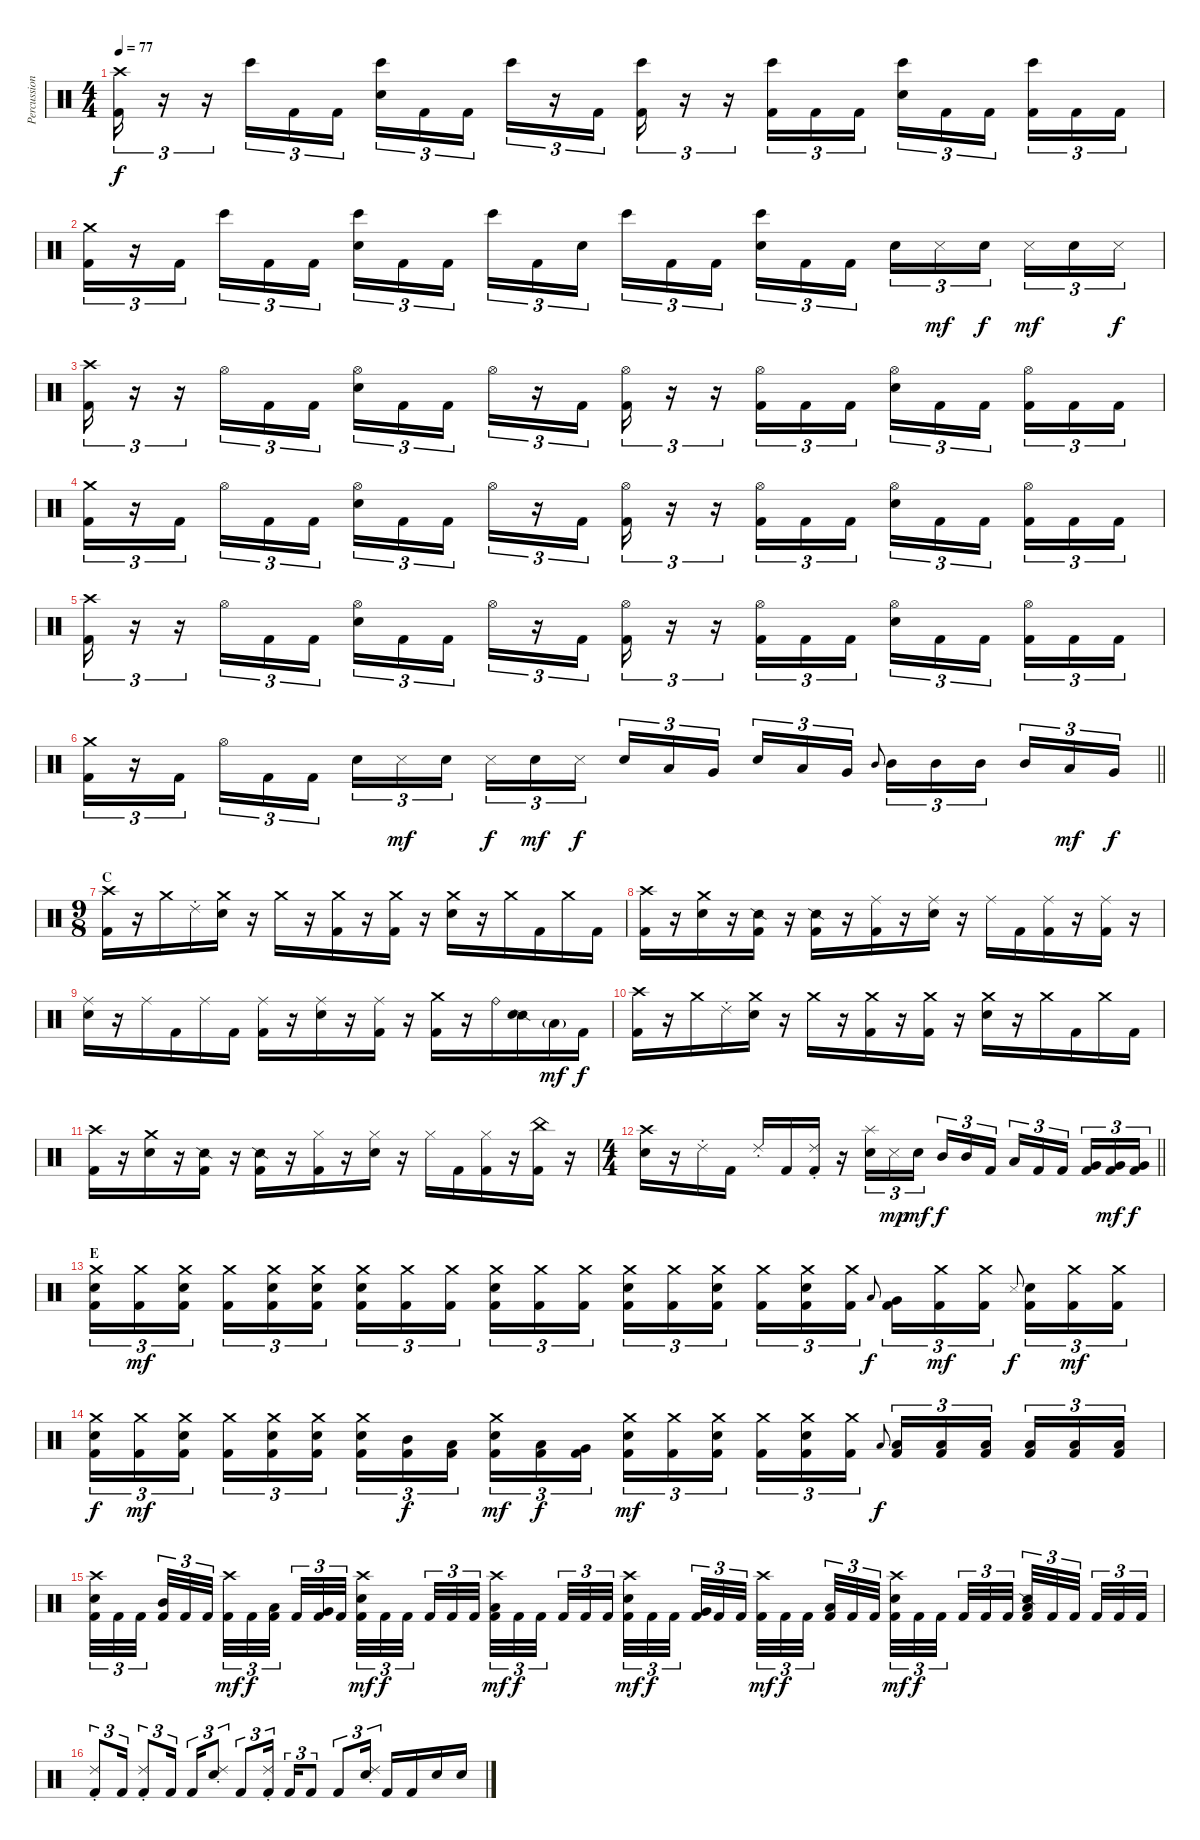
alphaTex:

\track ("Percussion" "Percussion") {instrument percussion}
\staff {score}
\articulation defaults
\ts (4 4)
\tempo 77
\clef neutral
\ks c
("Crash high (hit)" "Kick (hit) 2").16{tu (3 2) dy f} r.16{tu (3 2)} r.16{tu (3 2)} "Bongo High (hit)".16{tu (3 2)} "Kick (hit) 2".16{tu (3 2)} "Kick (hit) 2".16{tu (3 2)} ("Bongo High (hit)" "Snare (hit) 2").16{tu (3 2)} "Kick (hit) 2".16{tu (3 2)} "Kick (hit) 2".16{tu (3 2) beam splitsecondary} "Bongo High (hit)".16{tu (3 2)} r.16{tu (3 2)} "Kick (hit) 2".16{tu (3 2)} ("Bongo High (hit)" "Kick (hit) 2").16{tu (3 2)} r.16{tu (3 2)} r.16{tu (3 2)} ("Bongo High (hit)" "Kick (hit) 2").16{tu (3 2)} "Kick (hit) 2".16{tu (3 2)} "Kick (hit) 2".16{tu (3 2)} ("Bongo High (hit)" "Snare (hit) 2").16{tu (3 2)} "Kick (hit) 2".16{tu (3 2)} "Kick (hit) 2".16{tu (3 2) beam splitsecondary} ("Bongo High (hit)" "Kick (hit) 2").16{tu (3 2)} "Kick (hit) 2".16{tu (3 2)} "Kick (hit) 2".16{tu (3 2)} |
("Crash medium (hit)" "Kick (hit) 2").16{tu (3 2)} r.16{tu (3 2)} "Kick (hit) 2".16{tu (3 2) beam splitsecondary} "Bongo High (hit)".16{tu (3 2)} "Kick (hit) 2".16{tu (3 2)} "Kick (hit) 2".16{tu (3 2)} ("Bongo High (hit)" "Snare (hit) 2").16{tu (3 2)} "Kick (hit) 2".16{tu (3 2)} "Kick (hit) 2".16{tu (3 2) beam splitsecondary} "Bongo High (hit)".16{tu (3 2)} "Kick (hit) 2".16{tu (3 2)} "Snare (hit) 2".16{tu (3 2)} "Bongo High (hit)".16{tu (3 2)} "Kick (hit) 2".16{tu (3 2)} "Kick (hit) 2".16{tu (3 2) beam splitsecondary} ("Bongo High (hit)" "Snare (hit) 2").16{tu (3 2)} "Kick (hit) 2".16{tu (3 2)} "Kick (hit) 2".16{tu (3 2)} "Snare (hit) 2".16{tu (3 2)} "Metronome (hit)".16{tu (3 2) dy mf} "Snare (hit) 2".16{tu (3 2) dy f beam splitsecondary} "Metronome (hit)".16{tu (3 2) dy mf} "Snare (hit) 2".16{tu (3 2)} "Metronome (hit)".16{tu (3 2) dy f} |
("Crash high (hit)" "Kick (hit) 2").16{tu (3 2)} r.16{tu (3 2)} r.16{tu (3 2)} "Hi-Hat (open)".16{tu (3 2)} "Kick (hit) 2".16{tu (3 2)} "Kick (hit) 2".16{tu (3 2)} ("Hi-Hat (open)" "Snare (hit) 2").16{tu (3 2)} "Kick (hit) 2".16{tu (3 2)} "Kick (hit) 2".16{tu (3 2) beam splitsecondary} "Hi-Hat (open)".16{tu (3 2)} r.16{tu (3 2)} "Kick (hit) 2".16{tu (3 2)} ("Hi-Hat (open)" "Kick (hit) 2").16{tu (3 2)} r.16{tu (3 2)} r.16{tu (3 2)} ("Hi-Hat (open)" "Kick (hit) 2").16{tu (3 2)} "Kick (hit) 2".16{tu (3 2)} "Kick (hit) 2".16{tu (3 2)} ("Hi-Hat (open)" "Snare (hit) 2").16{tu (3 2)} "Kick (hit) 2".16{tu (3 2)} "Kick (hit) 2".16{tu (3 2) beam splitsecondary} ("Hi-Hat (open)" "Kick (hit) 2").16{tu (3 2)} "Kick (hit) 2".16{tu (3 2)} "Kick (hit) 2".16{tu (3 2)} |
("Crash medium (hit)" "Kick (hit) 2").16{tu (3 2)} r.16{tu (3 2)} "Kick (hit) 2".16{tu (3 2) beam splitsecondary} "Hi-Hat (open)".16{tu (3 2)} "Kick (hit) 2".16{tu (3 2)} "Kick (hit) 2".16{tu (3 2)} ("Hi-Hat (open)" "Snare (hit) 2").16{tu (3 2)} "Kick (hit) 2".16{tu (3 2)} "Kick (hit) 2".16{tu (3 2) beam splitsecondary} "Hi-Hat (open)".16{tu (3 2)} r.16{tu (3 2)} "Kick (hit) 2".16{tu (3 2)} ("Hi-Hat (open)" "Kick (hit) 2").16{tu (3 2)} r.16{tu (3 2)} r.16{tu (3 2)} ("Hi-Hat (open)" "Kick (hit) 2").16{tu (3 2)} "Kick (hit) 2".16{tu (3 2)} "Kick (hit) 2".16{tu (3 2)} ("Hi-Hat (open)" "Snare (hit) 2").16{tu (3 2)} "Kick (hit) 2".16{tu (3 2)} "Kick (hit) 2".16{tu (3 2) beam splitsecondary} ("Hi-Hat (open)" "Kick (hit) 2").16{tu (3 2)} "Kick (hit) 2".16{tu (3 2)} "Kick (hit) 2".16{tu (3 2)} |
("Crash high (hit)" "Kick (hit) 2").16{tu (3 2)} r.16{tu (3 2)} r.16{tu (3 2)} "Hi-Hat (open)".16{tu (3 2)} "Kick (hit) 2".16{tu (3 2)} "Kick (hit) 2".16{tu (3 2)} ("Hi-Hat (open)" "Snare (hit) 2").16{tu (3 2)} "Kick (hit) 2".16{tu (3 2)} "Kick (hit) 2".16{tu (3 2) beam splitsecondary} "Hi-Hat (open)".16{tu (3 2)} r.16{tu (3 2)} "Kick (hit) 2".16{tu (3 2)} ("Hi-Hat (open)" "Kick (hit) 2").16{tu (3 2)} r.16{tu (3 2)} r.16{tu (3 2)} ("Hi-Hat (open)" "Kick (hit) 2").16{tu (3 2)} "Kick (hit) 2".16{tu (3 2)} "Kick (hit) 2".16{tu (3 2)} ("Hi-Hat (open)" "Snare (hit) 2").16{tu (3 2)} "Kick (hit) 2".16{tu (3 2)} "Kick (hit) 2".16{tu (3 2) beam splitsecondary} ("Hi-Hat (open)" "Kick (hit) 2").16{tu (3 2)} "Kick (hit) 2".16{tu (3 2)} "Kick (hit) 2".16{tu (3 2)} |
\barLineRight lightlight
("Crash medium (hit)" "Kick (hit) 2").16{tu (3 2)} r.16{tu (3 2)} "Kick (hit) 2".16{tu (3 2) beam splitsecondary} "Hi-Hat (open)".16{tu (3 2)} "Kick (hit) 2".16{tu (3 2)} "Kick (hit) 2".16{tu (3 2)} "Snare (hit) 2".16{tu (3 2)} "Metronome (hit)".16{tu (3 2) dy mf} "Snare (hit) 2".16{tu (3 2) beam splitsecondary} "Metronome (hit)".16{tu (3 2) dy f} "Snare (hit) 2".16{tu (3 2) dy mf} "Metronome (hit)".16{tu (3 2) dy f} "Snare (hit) 2".16{tu (3 2)} "Low Tom (hit)".16{tu (3 2)} "Very Low Tom (hit)".16{tu (3 2) beam splitsecondary} "Snare (hit) 2".16{tu (3 2)} "Low Tom (hit)".16{tu (3 2)} "Very Low Tom (hit)".16{tu (3 2)} "Mid Tom (hit)".8{gr onbeat} "Mid Tom (hit)".16{tu (3 2)} "Mid Tom (hit)".16{tu (3 2)} "Mid Tom (hit)".16{tu (3 2) beam splitsecondary} "Mid Tom (hit)".16{tu (3 2)} "Low Tom (hit)".16{tu (3 2) dy mf} "Very Low Tom (hit)".16{tu (3 2) dy f} |
\ts (9 8)
\section ("" "C")
("Crash high (hit)" "Kick (hit) 2").16 r.16 "Crash medium (hit)".16 "Ride (choke) 2".16 ("Crash medium (hit)" "Snare (hit) 2").16 r.16 "Crash medium (hit)".16 r.16 ("Crash medium (hit)" "Kick (hit) 2").16 r.16 ("Crash medium (hit)" "Kick (hit) 2").16 r.16 ("Crash medium (hit)" "Snare (hit) 2").16 r.16 "Crash medium (hit)".16 "Kick (hit) 2".16 "Crash medium (hit)".16 "Kick (hit) 2".16 |
("Crash high (hit)" "Kick (hit) 2").16 r.16 ("Crash medium (hit)" "Snare (hit) 2").16 r.16 ("Snare (side stick) 2" "Kick (hit) 2").16 r.16 ("Snare (side stick) 2" "Kick (hit) 2").16 r.16 ("Ride (middle)" "Kick (hit) 2").16 r.16 ("Ride (middle)" "Snare (hit) 2").16 r.16 "Ride (middle)".16 "Kick (hit) 2".16 ("Ride (middle)" "Kick (hit) 2").16 r.16 ("Ride (middle)" "Kick (hit) 2").16 r.16 |
("Ride (middle)" "Snare (hit) 2").16 r.16 "Ride (middle)".16 "Kick (hit) 2".16 "Ride (middle)".16 "Kick (hit) 2".16 ("Ride (middle)" "Kick (hit) 2").16 r.16 ("Ride (middle)" "Snare (hit) 2").16 r.16 ("Ride (middle)" "Kick (hit) 2").16 r.16 ("Crash medium (hit)" "Kick (hit) 2").16 r.16 "Ride (bell)".16 ("Snare (side stick) 2" "Snare (hit) 2").16 "Low Tom (hit)"{g}.16{dy mf} "Kick (hit) 2".16{dy f} |
("Crash high (hit)" "Kick (hit) 2").16 r.16 "Crash medium (hit)".16 "Ride (choke) 2".16 ("Crash medium (hit)" "Snare (hit) 2").16 r.16 "Crash medium (hit)".16 r.16 ("Crash medium (hit)" "Kick (hit) 2").16 r.16 ("Crash medium (hit)" "Kick (hit) 2").16 r.16 ("Crash medium (hit)" "Snare (hit) 2").16 r.16 "Crash medium (hit)".16 "Kick (hit) 2".16 "Crash medium (hit)".16 "Kick (hit) 2".16 |
("Crash high (hit)" "Kick (hit) 2").16 r.16 ("Crash medium (hit)" "Snare (hit) 2").16 r.16 ("Snare (side stick) 2" "Kick (hit) 2").16 r.16 ("Snare (side stick) 2" "Kick (hit) 2").16 r.16 ("Hi-Hat (closed)" "Kick (hit) 2").16 r.16 ("Hi-Hat (closed)" "Snare (hit) 2").16 r.16 "Hi-Hat (closed)".16 "Kick (hit) 2".16 ("Hi-Hat (closed)" "Kick (hit) 2").16 r.16 ("China (hit)" "Kick (hit) 2").16 r.16 |
\ts (4 4)
\barLineRight lightlight
("Crash high (hit)" "Snare (hit) 2").16 r.16 "Ride (choke) 2".16 "Kick (hit) 2".16 "Ride (choke) 2".16 "Kick (hit) 2".16 ("Ride (choke) 2" "Kick (hit) 2").16 r.16 ("Splash (hit)" "Snare (hit) 2").16{tu (3 2)} "Metronome (hit)".16{tu (3 2) dy mp} "Snare (hit) 2".16{tu (3 2) dy mf beam splitsecondary} "Mid Tom (hit)".16{tu (3 2) dy f} "Mid Tom (hit)".16{tu (3 2)} "Kick (hit) 2".16{tu (3 2)} "Low Tom (hit)".16{tu (3 2)} "Kick (hit) 2".16{tu (3 2)} "Kick (hit) 2".16{tu (3 2) beam splitsecondary} ("Very Low Tom (hit)" "Kick (hit) 2").16{tu (3 2)} ("Very Low Tom (hit)" "Kick (hit) 2").16{tu (3 2) dy mf} ("Very Low Tom (hit)" "Kick (hit) 2").16{tu (3 2) dy f} |
\section ("" "E")
("Crash medium (hit)" "Snare (hit) 2" "Kick (hit) 2").16{tu (3 2)} ("Crash medium (hit)" "Kick (hit) 2").16{tu (3 2) dy mf} ("Crash medium (hit)" "Snare (hit) 2" "Kick (hit) 2").16{tu (3 2) beam splitsecondary} ("Crash medium (hit)" "Kick (hit) 2").16{tu (3 2)} ("Crash medium (hit)" "Snare (hit) 2" "Kick (hit) 2").16{tu (3 2)} ("Crash medium (hit)" "Snare (hit) 2" "Kick (hit) 2").16{tu (3 2)} ("Crash medium (hit)" "Snare (hit) 2" "Kick (hit) 2").16{tu (3 2)} ("Crash medium (hit)" "Kick (hit) 2").16{tu (3 2)} ("Crash medium (hit)" "Kick (hit) 2").16{tu (3 2) beam splitsecondary} ("Crash medium (hit)" "Snare (hit) 2" "Kick (hit) 2").16{tu (3 2)} ("Crash medium (hit)" "Kick (hit) 2").16{tu (3 2)} ("Crash medium (hit)" "Kick (hit) 2").16{tu (3 2)} ("Crash medium (hit)" "Snare (hit) 2" "Kick (hit) 2").16{tu (3 2)} ("Crash medium (hit)" "Kick (hit) 2").16{tu (3 2)} ("Crash medium (hit)" "Snare (hit) 2" "Kick (hit) 2").16{tu (3 2) beam splitsecondary} ("Crash medium (hit)" "Kick (hit) 2").16{tu (3 2)} ("Crash medium (hit)" "Snare (hit) 2" "Kick (hit) 2").16{tu (3 2)} ("Crash medium (hit)" "Kick (hit) 2").16{tu (3 2)} "Low Tom (hit)".8{gr onbeat dy f} ("Very Low Tom (hit)" "Kick (hit) 2").16{tu (3 2)} ("Crash medium (hit)" "Kick (hit) 2").16{tu (3 2) dy mf} ("Crash medium (hit)" "Kick (hit) 2").16{tu (3 2)} "Metronome (hit)".8{gr onbeat dy f beam splitsecondary} ("Snare (hit) 2" "Kick (hit) 2").16{tu (3 2)} ("Crash medium (hit)" "Kick (hit) 2").16{tu (3 2) dy mf} ("Crash medium (hit)" "Kick (hit) 2").16{tu (3 2)} |
("Crash medium (hit)" "Snare (hit) 2" "Kick (hit) 2").16{tu (3 2) dy f} ("Crash medium (hit)" "Kick (hit) 2").16{tu (3 2) dy mf} ("Crash medium (hit)" "Snare (hit) 2" "Kick (hit) 2").16{tu (3 2) beam splitsecondary} ("Crash medium (hit)" "Kick (hit) 2").16{tu (3 2)} ("Crash medium (hit)" "Snare (hit) 2" "Kick (hit) 2").16{tu (3 2)} ("Crash medium (hit)" "Snare (hit) 2" "Kick (hit) 2").16{tu (3 2)} ("Crash medium (hit)" "Snare (hit) 2" "Kick (hit) 2").16{tu (3 2)} ("Mid Tom (hit)" "Kick (hit) 2").16{tu (3 2) dy f} ("Low Tom (hit)" "Kick (hit) 2").16{tu (3 2) beam splitsecondary} ("Crash medium (hit)" "Snare (hit) 2" "Kick (hit) 2").16{tu (3 2) dy mf} ("Low Tom (hit)" "Kick (hit) 2").16{tu (3 2) dy f} ("Very Low Tom (hit)" "Kick (hit) 2").16{tu (3 2)} ("Crash medium (hit)" "Snare (hit) 2" "Kick (hit) 2").16{tu (3 2) dy mf} ("Crash medium (hit)" "Kick (hit) 2").16{tu (3 2)} ("Crash medium (hit)" "Snare (hit) 2" "Kick (hit) 2").16{tu (3 2) beam splitsecondary} ("Crash medium (hit)" "Kick (hit) 2").16{tu (3 2)} ("Crash medium (hit)" "Snare (hit) 2" "Kick (hit) 2").16{tu (3 2)} ("Crash medium (hit)" "Kick (hit) 2").16{tu (3 2)} "Low Tom (hit)".8{gr onbeat dy f} ("Low Tom (hit)" "Kick (hit) 2").16{tu (3 2)} ("Low Tom (hit)" "Kick (hit) 2").16{tu (3 2)} ("Low Tom (hit)" "Kick (hit) 2").16{tu (3 2) beam splitsecondary} ("Low Tom (hit)" "Kick (hit) 2").16{tu (3 2)} ("Low Tom (hit)" "Kick (hit) 2").16{tu (3 2)} ("Low Tom (hit)" "Kick (hit) 2").16{tu (3 2)} |
("Crash high (hit)" "Snare (hit) 2" "Kick (hit) 2").32{tu (3 2)} "Kick (hit) 2".32{tu (3 2)} "Kick (hit) 2".32{tu (3 2) beam splitsecondary} ("Mid Tom (hit)" "Kick (hit) 2").32{tu (3 2)} "Kick (hit) 2".32{tu (3 2)} "Kick (hit) 2".32{tu (3 2) beam splitsecondary} ("Crash high (hit)" "Kick (hit) 2").32{tu (3 2) dy mf} "Kick (hit) 2".32{tu (3 2) dy f} ("Low Tom (hit)" "Kick (hit) 2").32{tu (3 2) beam splitsecondary} "Kick (hit) 2".32{tu (3 2)} ("Very Low Tom (hit)" "Kick (hit) 2").32{tu (3 2)} "Kick (hit) 2".32{tu (3 2)} ("Crash high (hit)" "Snare (hit) 2" "Kick (hit) 2").32{tu (3 2) dy mf} "Kick (hit) 2".32{tu (3 2) dy f} "Kick (hit) 2".32{tu (3 2) beam splitsecondary} "Kick (hit) 2".32{tu (3 2)} "Kick (hit) 2".32{tu (3 2)} "Kick (hit) 2".32{tu (3 2) beam splitsecondary} ("Crash high (hit)" "Low Tom (hit)" "Kick (hit) 2").32{tu (3 2) dy mf} "Kick (hit) 2".32{tu (3 2) dy f} "Kick (hit) 2".32{tu (3 2) beam splitsecondary} "Kick (hit) 2".32{tu (3 2)} "Kick (hit) 2".32{tu (3 2)} "Kick (hit) 2".32{tu (3 2)} ("Crash high (hit)" "Snare (hit) 2" "Kick (hit) 2").32{tu (3 2) dy mf} "Kick (hit) 2".32{tu (3 2) dy f} "Kick (hit) 2".32{tu (3 2) beam splitsecondary} ("Very Low Tom (hit)" "Kick (hit) 2").32{tu (3 2)} "Kick (hit) 2".32{tu (3 2)} "Kick (hit) 2".32{tu (3 2) beam splitsecondary} ("Crash high (hit)" "Kick (hit) 2").32{tu (3 2) dy mf} "Kick (hit) 2".32{tu (3 2) dy f} "Kick (hit) 2".32{tu (3 2) beam splitsecondary} ("Low Tom (hit)" "Kick (hit) 2").32{tu (3 2)} "Kick (hit) 2".32{tu (3 2)} "Kick (hit) 2".32{tu (3 2)} ("Crash high (hit)" "Snare (hit) 2" "Kick (hit) 2").32{tu (3 2) dy mf} "Kick (hit) 2".32{tu (3 2) dy f} "Kick (hit) 2".32{tu (3 2) beam splitsecondary} "Kick (hit) 2".32{tu (3 2)} "Kick (hit) 2".32{tu (3 2)} "Kick (hit) 2".32{tu (3 2) beam splitsecondary} ("Snare (side stick) 2" "Low Floor Tom (hit)" "Kick (hit) 2").32{tu (3 2)} "Kick (hit) 2".32{tu (3 2)} "Kick (hit) 2".32{tu (3 2) beam splitsecondary} "Kick (hit) 2".32{tu (3 2)} "Kick (hit) 2".32{tu (3 2)} "Kick (hit) 2".32{tu (3 2)} |
("Ride (choke) 2" "Kick (hit) 2").8{tu (3 2)} "Kick (hit) 2".16{tu (3 2)} ("Ride (choke) 2" "Kick (hit) 2").8{tu (3 2)} "Kick (hit) 2".16{tu (3 2)} "Kick (hit) 2".16{tu (3 2)} ("Ride (choke) 2" "Snare (hit) 2").8{tu (3 2)} "Kick (hit) 2".8{tu (3 2)} ("Ride (choke) 2" "Kick (hit) 2").16{tu (3 2)} "Kick (hit) 2".16{tu (3 2)} "Kick (hit) 2".8{tu (3 2)} "Kick (hit) 2".8{tu (3 2)} ("Ride (choke) 2" "Snare (hit) 2").16{tu (3 2)} "Kick (hit) 2".16 "Kick (hit) 2".16 "Snare (hit) 2".16 "Snare (hit) 2".16
